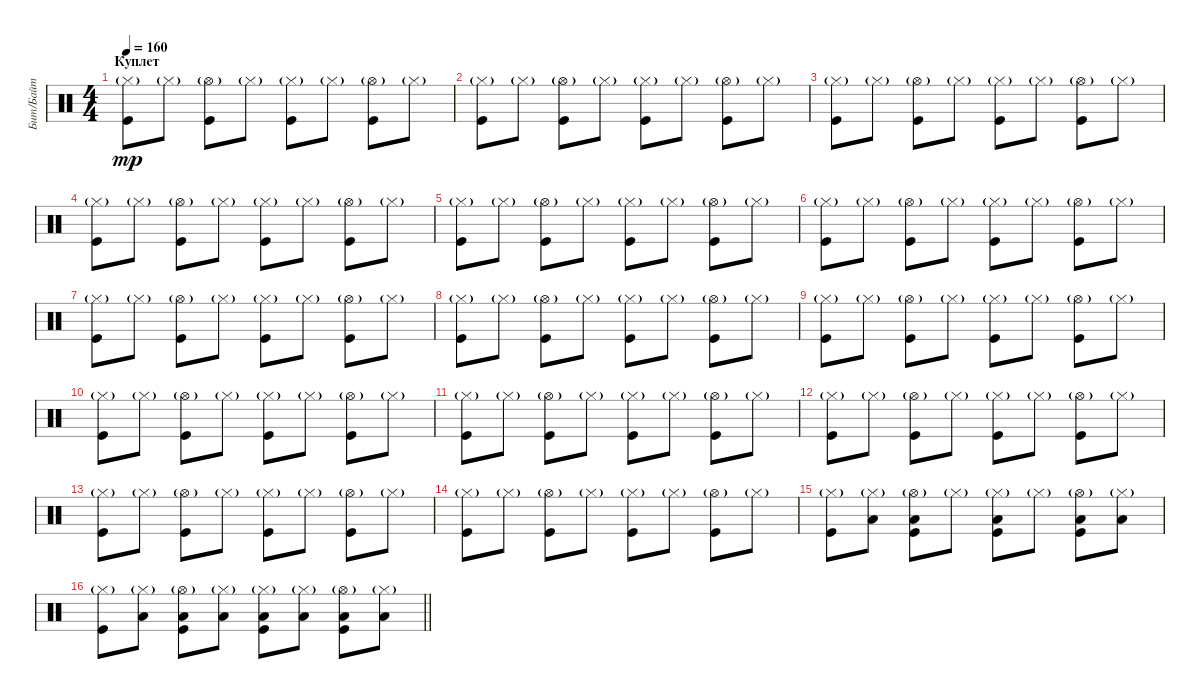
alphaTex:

\track ("Бит/Байт" "Бит/Байт") {instrument percussion}
\staff {score}
\articulation defaults
\ts (4 4)
\section ("" "Куплет")
\tempo 160
\clef neutral
\ks c
("Hi-Hat (closed)"{g} "Kick (hit)").8{dy mp} "Hi-Hat (closed)"{g}.8 ("Hi-Hat (open)"{g} "Kick (hit)").8 "Hi-Hat (closed)"{g}.8 ("Hi-Hat (closed)"{g} "Kick (hit)").8 "Hi-Hat (closed)"{g}.8 ("Hi-Hat (open)"{g} "Kick (hit)").8 "Hi-Hat (closed)"{g}.8 |
("Hi-Hat (closed)"{g} "Kick (hit)").8 "Hi-Hat (closed)"{g}.8 ("Hi-Hat (open)"{g} "Kick (hit)").8 "Hi-Hat (closed)"{g}.8 ("Hi-Hat (closed)"{g} "Kick (hit)").8 "Hi-Hat (closed)"{g}.8 ("Hi-Hat (open)"{g} "Kick (hit)").8 "Hi-Hat (closed)"{g}.8 |
("Hi-Hat (closed)"{g} "Kick (hit)").8 "Hi-Hat (closed)"{g}.8 ("Hi-Hat (open)"{g} "Kick (hit)").8 "Hi-Hat (closed)"{g}.8 ("Hi-Hat (closed)"{g} "Kick (hit)").8 "Hi-Hat (closed)"{g}.8 ("Hi-Hat (open)"{g} "Kick (hit)").8 "Hi-Hat (closed)"{g}.8 |
("Hi-Hat (closed)"{g} "Kick (hit)").8 "Hi-Hat (closed)"{g}.8 ("Hi-Hat (open)"{g} "Kick (hit)").8 "Hi-Hat (closed)"{g}.8 ("Hi-Hat (closed)"{g} "Kick (hit)").8 "Hi-Hat (closed)"{g}.8 ("Hi-Hat (open)"{g} "Kick (hit)").8 "Hi-Hat (closed)"{g}.8 |
("Hi-Hat (closed)"{g} "Kick (hit)").8 "Hi-Hat (closed)"{g}.8 ("Hi-Hat (open)"{g} "Kick (hit)").8 "Hi-Hat (closed)"{g}.8 ("Hi-Hat (closed)"{g} "Kick (hit)").8 "Hi-Hat (closed)"{g}.8 ("Hi-Hat (open)"{g} "Kick (hit)").8 "Hi-Hat (closed)"{g}.8 |
("Hi-Hat (closed)"{g} "Kick (hit)").8 "Hi-Hat (closed)"{g}.8 ("Hi-Hat (open)"{g} "Kick (hit)").8 "Hi-Hat (closed)"{g}.8 ("Hi-Hat (closed)"{g} "Kick (hit)").8 "Hi-Hat (closed)"{g}.8 ("Hi-Hat (open)"{g} "Kick (hit)").8 "Hi-Hat (closed)"{g}.8 |
("Hi-Hat (closed)"{g} "Kick (hit)").8 "Hi-Hat (closed)"{g}.8 ("Hi-Hat (open)"{g} "Kick (hit)").8 "Hi-Hat (closed)"{g}.8 ("Hi-Hat (closed)"{g} "Kick (hit)").8 "Hi-Hat (closed)"{g}.8 ("Hi-Hat (open)"{g} "Kick (hit)").8 "Hi-Hat (closed)"{g}.8 |
("Hi-Hat (closed)"{g} "Kick (hit)").8 "Hi-Hat (closed)"{g}.8 ("Hi-Hat (open)"{g} "Kick (hit)").8 "Hi-Hat (closed)"{g}.8 ("Hi-Hat (closed)"{g} "Kick (hit)").8 "Hi-Hat (closed)"{g}.8 ("Hi-Hat (open)"{g} "Kick (hit)").8 "Hi-Hat (closed)"{g}.8 |
("Hi-Hat (closed)"{g} "Kick (hit)").8 "Hi-Hat (closed)"{g}.8 ("Hi-Hat (open)"{g} "Kick (hit)").8 "Hi-Hat (closed)"{g}.8 ("Hi-Hat (closed)"{g} "Kick (hit)").8 "Hi-Hat (closed)"{g}.8 ("Hi-Hat (open)"{g} "Kick (hit)").8 "Hi-Hat (closed)"{g}.8 |
("Hi-Hat (closed)"{g} "Kick (hit)").8 "Hi-Hat (closed)"{g}.8 ("Hi-Hat (open)"{g} "Kick (hit)").8 "Hi-Hat (closed)"{g}.8 ("Hi-Hat (closed)"{g} "Kick (hit)").8 "Hi-Hat (closed)"{g}.8 ("Hi-Hat (open)"{g} "Kick (hit)").8 "Hi-Hat (closed)"{g}.8 |
("Hi-Hat (closed)"{g} "Kick (hit)").8 "Hi-Hat (closed)"{g}.8 ("Hi-Hat (open)"{g} "Kick (hit)").8 "Hi-Hat (closed)"{g}.8 ("Hi-Hat (closed)"{g} "Kick (hit)").8 "Hi-Hat (closed)"{g}.8 ("Hi-Hat (open)"{g} "Kick (hit)").8 "Hi-Hat (closed)"{g}.8 |
("Hi-Hat (closed)"{g} "Kick (hit)").8 "Hi-Hat (closed)"{g}.8 ("Hi-Hat (open)"{g} "Kick (hit)").8 "Hi-Hat (closed)"{g}.8 ("Hi-Hat (closed)"{g} "Kick (hit)").8 "Hi-Hat (closed)"{g}.8 ("Hi-Hat (open)"{g} "Kick (hit)").8 "Hi-Hat (closed)"{g}.8 |
("Hi-Hat (closed)"{g} "Kick (hit)").8 "Hi-Hat (closed)"{g}.8 ("Hi-Hat (open)"{g} "Kick (hit)").8 "Hi-Hat (closed)"{g}.8 ("Hi-Hat (closed)"{g} "Kick (hit)").8 "Hi-Hat (closed)"{g}.8 ("Hi-Hat (open)"{g} "Kick (hit)").8 "Hi-Hat (closed)"{g}.8 |
("Hi-Hat (closed)"{g} "Kick (hit)").8 "Hi-Hat (closed)"{g}.8 ("Hi-Hat (open)"{g} "Kick (hit)").8 "Hi-Hat (closed)"{g}.8 ("Hi-Hat (closed)"{g} "Kick (hit)").8 "Hi-Hat (closed)"{g}.8 ("Hi-Hat (open)"{g} "Kick (hit)").8 "Hi-Hat (closed)"{g}.8 |
("Hi-Hat (closed)"{g} "Kick (hit)").8 ("Hi-Hat (closed)"{g} "Low Tom (hit)").8 ("Hi-Hat (open)"{g} "Low Tom (hit)" "Kick (hit)").8 "Hi-Hat (closed)"{g}.8 ("Hi-Hat (closed)"{g} "Low Tom (hit)" "Kick (hit)").8 "Hi-Hat (closed)"{g}.8 ("Hi-Hat (open)"{g} "Low Tom (hit)" "Kick (hit)").8 ("Hi-Hat (closed)"{g} "Low Tom (hit)").8 |
\barLineRight lightlight
("Hi-Hat (closed)"{g} "Kick (hit)").8 ("Hi-Hat (closed)"{g} "Low Tom (hit)").8 ("Hi-Hat (open)"{g} "Low Tom (hit)" "Kick (hit)").8 ("Hi-Hat (closed)"{g} "Low Tom (hit)").8 ("Hi-Hat (closed)"{g} "Low Tom (hit)" "Kick (hit)").8 ("Hi-Hat (closed)"{g} "Low Tom (hit)").8 ("Hi-Hat (open)"{g} "Low Tom (hit)" "Kick (hit)").8 ("Hi-Hat (closed)"{g} "Low Tom (hit)").8
